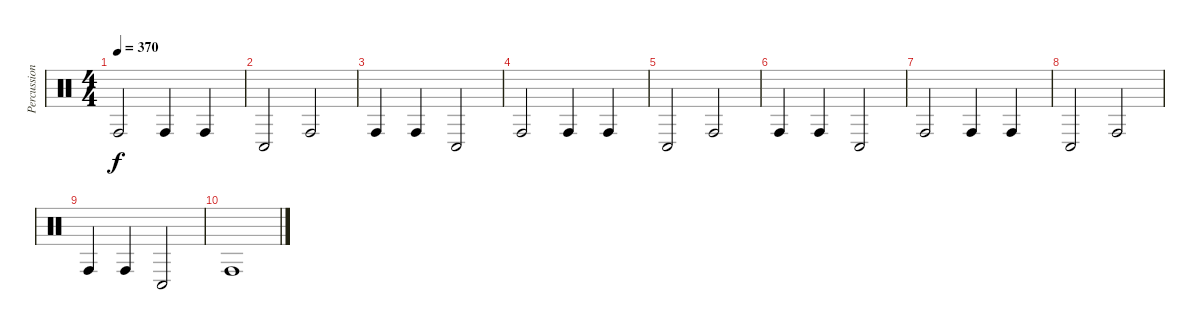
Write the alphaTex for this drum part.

\track ("Percussions" "Percussion") {instrument percussion}
\staff {score}
\articulation defaults
\ts (4 4)
\tempo 370
\clef neutral
\ks c "Conga high (hit)".2{dy f} "Conga high (hit)".4 "Conga high (hit)".4
|
"Conga low (hit)".2 "Conga high (hit)".2 |
"Conga high (hit)".4 "Conga high (hit)".4 "Conga low (hit)".2 |
"Conga high (hit)".2 "Conga high (hit)".4 "Conga high (hit)".4 |
"Conga low (hit)".2 "Conga high (hit)".2 |
"Conga high (hit)".4 "Conga high (hit)".4 "Conga low (hit)".2 |
"Conga high (hit)".2 "Conga high (hit)".4 "Conga high (hit)".4 |
"Conga low (hit)".2 "Conga high (hit)".2 |
"Conga high (hit)".4 "Conga high (hit)".4 "Conga low (hit)".2 |
"Conga high (hit)".1
